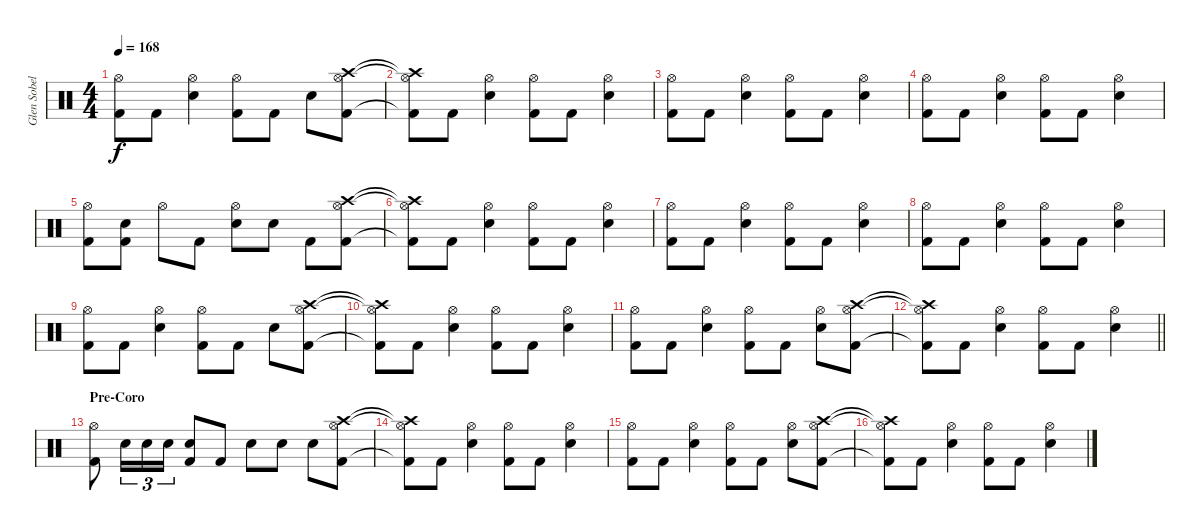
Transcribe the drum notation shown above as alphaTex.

\track ("Glen Sobel" "Glen Sobel") {instrument percussion}
\staff {score}
\articulation defaults
\ts (4 4)
\tempo 168
\clef neutral
\ks c
("Hi-Hat (open)" "Kick (hit) 2").8{dy f} "Kick (hit) 2".8 ("Hi-Hat (open)" "Snare (hit) 2").4 ("Hi-Hat (open)" "Kick (hit) 2").8 "Kick (hit) 2".8 "Snare (hit) 2".8 ("Hi-Hat (open)" "Crash high (hit)" "Kick (hit) 2").8 |
("Hi-Hat (open)"{t} "Crash high (hit)"{t} "Kick (hit) 2"{t}).8 "Kick (hit) 2".8 ("Hi-Hat (open)" "Snare (hit) 2").4 ("Hi-Hat (open)" "Kick (hit) 2").8 "Kick (hit) 2".8 ("Hi-Hat (open)" "Snare (hit) 2").4 |
("Hi-Hat (open)" "Kick (hit) 2").8 "Kick (hit) 2".8 ("Hi-Hat (open)" "Snare (hit) 2").4 ("Hi-Hat (open)" "Kick (hit) 2").8 "Kick (hit) 2".8 ("Hi-Hat (open)" "Snare (hit) 2").4 |
("Hi-Hat (open)" "Kick (hit) 2").8 "Kick (hit) 2".8 ("Hi-Hat (open)" "Snare (hit) 2").4 ("Hi-Hat (open)" "Kick (hit) 2").8 "Kick (hit) 2".8 ("Hi-Hat (open)" "Snare (hit) 2").4 |
("Hi-Hat (open)" "Kick (hit) 2").8 ("Snare (hit) 2" "Kick (hit) 2").8 "Hi-Hat (open)".8 "Kick (hit) 2".8 ("Hi-Hat (open)" "Snare (hit) 2").8 "Snare (hit) 2".8 "Kick (hit) 2".8 ("Hi-Hat (open)" "Crash high (hit)" "Kick (hit) 2").8 |
("Hi-Hat (open)"{t} "Crash high (hit)"{t} "Kick (hit) 2"{t}).8 "Kick (hit) 2".8 ("Hi-Hat (open)" "Snare (hit) 2").4 ("Hi-Hat (open)" "Kick (hit) 2").8 "Kick (hit) 2".8 ("Hi-Hat (open)" "Snare (hit) 2").4 |
("Hi-Hat (open)" "Kick (hit) 2").8 "Kick (hit) 2".8 ("Hi-Hat (open)" "Snare (hit) 2").4 ("Hi-Hat (open)" "Kick (hit) 2").8 "Kick (hit) 2".8 ("Hi-Hat (open)" "Snare (hit) 2").4 |
("Hi-Hat (open)" "Kick (hit) 2").8 "Kick (hit) 2".8 ("Hi-Hat (open)" "Snare (hit) 2").4 ("Hi-Hat (open)" "Kick (hit) 2").8 "Kick (hit) 2".8 ("Hi-Hat (open)" "Snare (hit) 2").4 |
("Hi-Hat (open)" "Kick (hit) 2").8 "Kick (hit) 2".8 ("Hi-Hat (open)" "Snare (hit) 2").4 ("Hi-Hat (open)" "Kick (hit) 2").8 "Kick (hit) 2".8 "Snare (hit) 2".8 ("Hi-Hat (open)" "Crash high (hit)" "Kick (hit) 2").8 |
("Hi-Hat (open)"{t} "Crash high (hit)"{t} "Kick (hit) 2"{t}).8 "Kick (hit) 2".8 ("Hi-Hat (open)" "Snare (hit) 2").4 ("Hi-Hat (open)" "Kick (hit) 2").8 "Kick (hit) 2".8 ("Hi-Hat (open)" "Snare (hit) 2").4 |
("Hi-Hat (open)" "Kick (hit) 2").8 "Kick (hit) 2".8 ("Hi-Hat (open)" "Snare (hit) 2").4 ("Hi-Hat (open)" "Kick (hit) 2").8 "Kick (hit) 2".8 ("Hi-Hat (open)" "Snare (hit) 2").8 ("Hi-Hat (open)" "Crash high (hit)" "Kick (hit) 2").8 |
\barLineRight lightlight
("Hi-Hat (open)"{t} "Crash high (hit)"{t} "Kick (hit) 2"{t}).8 "Kick (hit) 2".8 ("Hi-Hat (open)" "Snare (hit) 2").4 ("Hi-Hat (open)" "Kick (hit) 2").8 "Kick (hit) 2".8 ("Hi-Hat (open)" "Snare (hit) 2").4 |
\section ("" "Pre-Coro")
("Hi-Hat (open)" "Kick (hit) 2").8 "Snare (hit) 2".16{tu (3 2)} "Snare (hit) 2".16{tu (3 2)} "Snare (hit) 2".16{tu (3 2)} ("Snare (hit) 2" "Kick (hit) 2").8 "Kick (hit) 2".8 "Snare (hit) 2".8 "Snare (hit) 2".8 "Snare (hit) 2".8 ("Hi-Hat (open)" "Crash high (hit)" "Kick (hit) 2").8 |
("Hi-Hat (open)"{t} "Crash high (hit)"{t} "Kick (hit) 2"{t}).8 "Kick (hit) 2".8 ("Hi-Hat (open)" "Snare (hit) 2").4 ("Hi-Hat (open)" "Kick (hit) 2").8 "Kick (hit) 2".8 ("Hi-Hat (open)" "Snare (hit) 2").4 |
("Hi-Hat (open)" "Kick (hit) 2").8 "Kick (hit) 2".8 ("Hi-Hat (open)" "Snare (hit) 2").4 ("Hi-Hat (open)" "Kick (hit) 2").8 "Kick (hit) 2".8 ("Hi-Hat (open)" "Snare (hit) 2").8 ("Hi-Hat (open)" "Crash high (hit)" "Kick (hit) 2").8 |
("Hi-Hat (open)"{t} "Crash high (hit)"{t} "Kick (hit) 2"{t}).8 "Kick (hit) 2".8 ("Hi-Hat (open)" "Snare (hit) 2").4 ("Hi-Hat (open)" "Kick (hit) 2").8 "Kick (hit) 2".8 ("Hi-Hat (open)" "Snare (hit) 2").4
